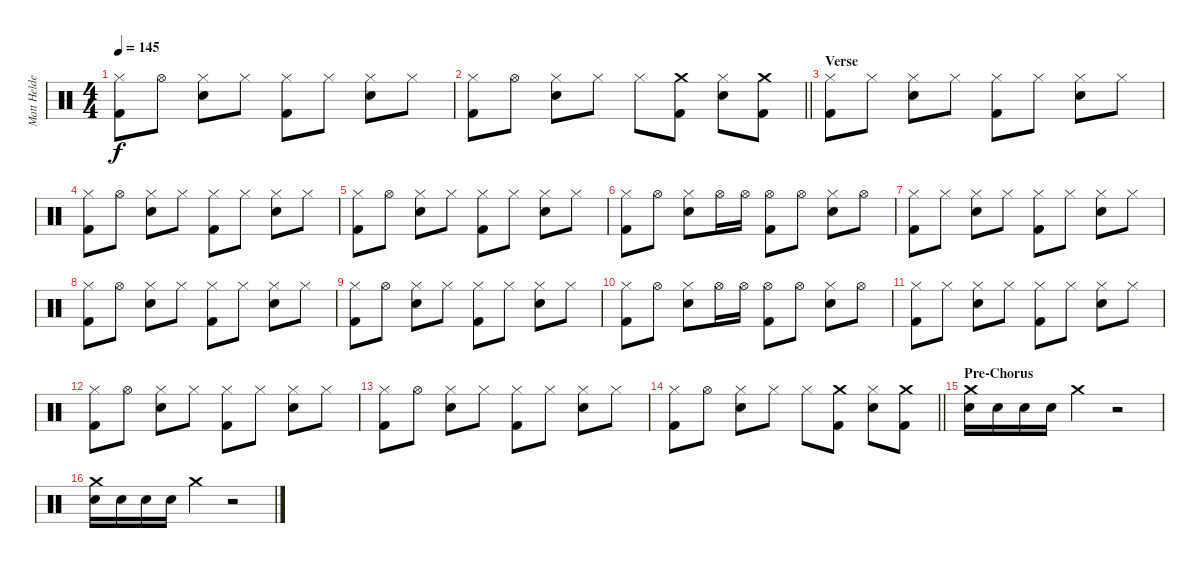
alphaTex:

\track ("Matt Helders" "Matt Helde") {instrument percussion}
\staff {score}
\articulation defaults
\ts (4 4)
\tempo 145
\clef neutral
\ks c
("Kick (hit) 2" "Hi-Hat (closed)").8{dy f} "Hi-Hat (open)".8 ("Electric Snare (hit)" "Hi-Hat (closed)").8 "Hi-Hat (closed)".8 ("Kick (hit) 2" "Hi-Hat (closed)").8 "Hi-Hat (closed)".8 ("Electric Snare (hit)" "Hi-Hat (closed)").8 "Hi-Hat (closed)".8 |
\barLineRight lightlight
("Kick (hit) 2" "Hi-Hat (closed)").8 "Hi-Hat (open)".8 ("Electric Snare (hit)" "Hi-Hat (closed)").8 "Hi-Hat (closed)".8 "Hi-Hat (closed)".8 ("Kick (hit) 2" "Crash medium (hit)").8 ("Electric Snare (hit)" "Hi-Hat (closed)").8 ("Kick (hit) 2" "Crash medium (hit)").8 |
\section ("" "Verse")
("Kick (hit) 2" "Hi-Hat (closed)").8 "Hi-Hat (closed)".8 ("Electric Snare (hit)" "Hi-Hat (closed)").8 "Hi-Hat (closed)".8 ("Kick (hit) 2" "Hi-Hat (closed)").8 "Hi-Hat (closed)".8 ("Electric Snare (hit)" "Hi-Hat (closed)").8 "Hi-Hat (closed)".8 |
("Kick (hit) 2" "Hi-Hat (closed)").8 "Hi-Hat (open)".8 ("Electric Snare (hit)" "Hi-Hat (closed)").8 "Hi-Hat (closed)".8 ("Kick (hit) 2" "Hi-Hat (closed)").8 "Hi-Hat (closed)".8 ("Electric Snare (hit)" "Hi-Hat (closed)").8 "Hi-Hat (closed)".8 |
("Kick (hit) 2" "Hi-Hat (closed)").8 "Hi-Hat (open)".8 ("Electric Snare (hit)" "Hi-Hat (closed)").8 "Hi-Hat (closed)".8 ("Kick (hit) 2" "Hi-Hat (closed)").8 "Hi-Hat (closed)".8 ("Electric Snare (hit)" "Hi-Hat (closed)").8 "Hi-Hat (closed)".8 |
("Kick (hit) 2" "Hi-Hat (closed)").8 "Hi-Hat (open)".8 ("Electric Snare (hit)" "Hi-Hat (closed)").8 "Hi-Hat (open)".16 "Hi-Hat (open)".16 ("Kick (hit) 2" "Hi-Hat (open)").8 "Hi-Hat (open)".8 ("Electric Snare (hit)" "Hi-Hat (closed)").8 "Hi-Hat (open)".8 |
("Kick (hit) 2" "Hi-Hat (closed)").8 "Hi-Hat (closed)".8 ("Electric Snare (hit)" "Hi-Hat (closed)").8 "Hi-Hat (closed)".8 ("Kick (hit) 2" "Hi-Hat (closed)").8 "Hi-Hat (closed)".8 ("Electric Snare (hit)" "Hi-Hat (closed)").8 "Hi-Hat (closed)".8 |
("Kick (hit) 2" "Hi-Hat (closed)").8 "Hi-Hat (open)".8 ("Electric Snare (hit)" "Hi-Hat (closed)").8 "Hi-Hat (closed)".8 ("Kick (hit) 2" "Hi-Hat (closed)").8 "Hi-Hat (closed)".8 ("Electric Snare (hit)" "Hi-Hat (closed)").8 "Hi-Hat (closed)".8 |
("Kick (hit) 2" "Hi-Hat (closed)").8 "Hi-Hat (open)".8 ("Electric Snare (hit)" "Hi-Hat (closed)").8 "Hi-Hat (closed)".8 ("Kick (hit) 2" "Hi-Hat (closed)").8 "Hi-Hat (closed)".8 ("Electric Snare (hit)" "Hi-Hat (closed)").8 "Hi-Hat (closed)".8 |
("Kick (hit) 2" "Hi-Hat (closed)").8 "Hi-Hat (open)".8 ("Electric Snare (hit)" "Hi-Hat (closed)").8 "Hi-Hat (open)".16 "Hi-Hat (open)".16 ("Kick (hit) 2" "Hi-Hat (open)").8 "Hi-Hat (open)".8 ("Electric Snare (hit)" "Hi-Hat (closed)").8 "Hi-Hat (open)".8 |
("Kick (hit) 2" "Hi-Hat (closed)").8 "Hi-Hat (closed)".8 ("Electric Snare (hit)" "Hi-Hat (closed)").8 "Hi-Hat (closed)".8 ("Kick (hit) 2" "Hi-Hat (closed)").8 "Hi-Hat (closed)".8 ("Electric Snare (hit)" "Hi-Hat (closed)").8 "Hi-Hat (closed)".8 |
("Kick (hit) 2" "Hi-Hat (closed)").8 "Hi-Hat (open)".8 ("Electric Snare (hit)" "Hi-Hat (closed)").8 "Hi-Hat (closed)".8 ("Kick (hit) 2" "Hi-Hat (closed)").8 "Hi-Hat (closed)".8 ("Electric Snare (hit)" "Hi-Hat (closed)").8 "Hi-Hat (closed)".8 |
("Kick (hit) 2" "Hi-Hat (closed)").8 "Hi-Hat (open)".8 ("Electric Snare (hit)" "Hi-Hat (closed)").8 "Hi-Hat (closed)".8 ("Kick (hit) 2" "Hi-Hat (closed)").8 "Hi-Hat (closed)".8 ("Electric Snare (hit)" "Hi-Hat (closed)").8 "Hi-Hat (closed)".8 |
\barLineRight lightlight
("Kick (hit) 2" "Hi-Hat (closed)").8 "Hi-Hat (open)".8 ("Electric Snare (hit)" "Hi-Hat (closed)").8 "Hi-Hat (closed)".8 "Hi-Hat (closed)".8 ("Kick (hit) 2" "Crash medium (hit)").8 ("Electric Snare (hit)" "Hi-Hat (closed)").8 ("Kick (hit) 2" "Crash medium (hit)").8 |
\section ("" "Pre-Chorus")
("Electric Snare (hit)" "Crash medium (hit)").16 "Electric Snare (hit)".16 "Electric Snare (hit)".16 "Electric Snare (hit)".16 "Crash medium (hit)".4 r.2 |
("Electric Snare (hit)" "Crash medium (hit)").16 "Electric Snare (hit)".16 "Electric Snare (hit)".16 "Electric Snare (hit)".16 "Crash medium (hit)".4 r.2
